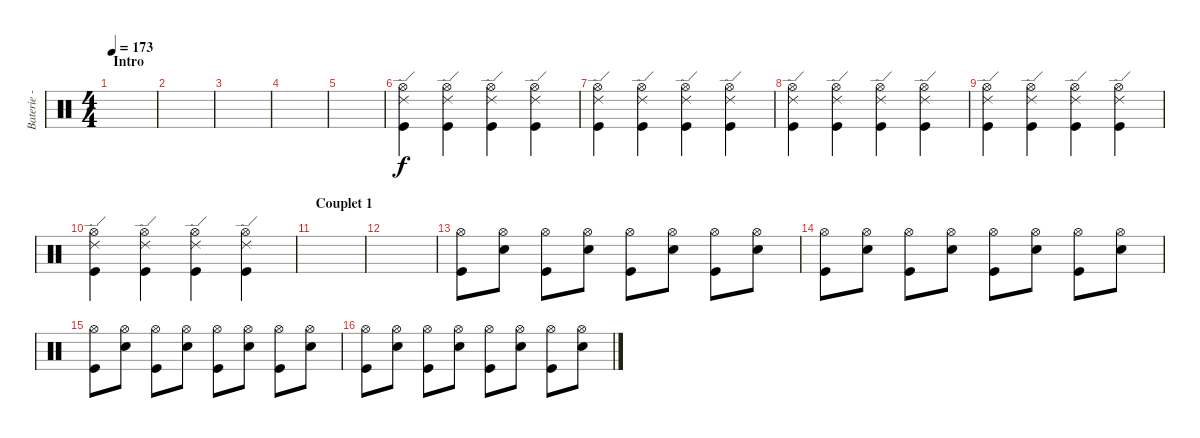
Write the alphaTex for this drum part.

\track ("Baterie - Guillaume" "Baterie - ") {instrument percussion}
\staff {score}
\articulation defaults
\ts (4 4)
\section ("" "Intro")
\tempo 173
\clef neutral
\ks c
|
|
|
|
|
("Hi-Hat (open)" "Ride (edge) 2" "Kick (hit)").4 ("Hi-Hat (open)" "Ride (edge) 2" "Kick (hit)").4 ("Hi-Hat (open)" "Ride (edge) 2" "Kick (hit)").4 ("Hi-Hat (open)" "Ride (edge) 2" "Kick (hit)").4 |
("Hi-Hat (open)" "Ride (edge) 2" "Kick (hit)").4 ("Hi-Hat (open)" "Ride (edge) 2" "Kick (hit)").4 ("Hi-Hat (open)" "Ride (edge) 2" "Kick (hit)").4 ("Hi-Hat (open)" "Ride (edge) 2" "Kick (hit)").4 |
("Hi-Hat (open)" "Ride (edge) 2" "Kick (hit)").4 ("Hi-Hat (open)" "Ride (edge) 2" "Kick (hit)").4 ("Hi-Hat (open)" "Ride (edge) 2" "Kick (hit)").4 ("Hi-Hat (open)" "Ride (edge) 2" "Kick (hit)").4 |
("Hi-Hat (open)" "Ride (edge) 2" "Kick (hit)").4 ("Hi-Hat (open)" "Ride (edge) 2" "Kick (hit)").4 ("Hi-Hat (open)" "Ride (edge) 2" "Kick (hit)").4 ("Hi-Hat (open)" "Ride (edge) 2" "Kick (hit)").4 |
("Hi-Hat (open)" "Ride (edge) 2" "Kick (hit)").4 ("Hi-Hat (open)" "Ride (edge) 2" "Kick (hit)").4 ("Hi-Hat (open)" "Ride (edge) 2" "Kick (hit)").4 ("Hi-Hat (open)" "Ride (edge) 2" "Kick (hit)").4 |
\section ("" "Couplet 1")
|
|
("Hi-Hat (open)" "Kick (hit)").8 ("Hi-Hat (open)" "Snare (hit) 2").8 ("Hi-Hat (open)" "Kick (hit)").8 ("Hi-Hat (open)" "Snare (hit) 2").8 ("Hi-Hat (open)" "Kick (hit)").8 ("Hi-Hat (open)" "Snare (hit) 2").8 ("Hi-Hat (open)" "Kick (hit)").8 ("Hi-Hat (open)" "Snare (hit) 2").8 |
("Hi-Hat (open)" "Kick (hit)").8 ("Hi-Hat (open)" "Snare (hit) 2").8 ("Hi-Hat (open)" "Kick (hit)").8 ("Hi-Hat (open)" "Snare (hit) 2").8 ("Hi-Hat (open)" "Kick (hit)").8 ("Hi-Hat (open)" "Snare (hit) 2").8 ("Hi-Hat (open)" "Kick (hit)").8 ("Hi-Hat (open)" "Snare (hit) 2").8 |
("Hi-Hat (open)" "Kick (hit)").8 ("Hi-Hat (open)" "Snare (hit) 2").8 ("Hi-Hat (open)" "Kick (hit)").8 ("Hi-Hat (open)" "Snare (hit) 2").8 ("Hi-Hat (open)" "Kick (hit)").8 ("Hi-Hat (open)" "Snare (hit) 2").8 ("Hi-Hat (open)" "Kick (hit)").8 ("Hi-Hat (open)" "Snare (hit) 2").8 |
("Hi-Hat (open)" "Kick (hit)").8 ("Hi-Hat (open)" "Snare (hit) 2").8 ("Hi-Hat (open)" "Kick (hit)").8 ("Hi-Hat (open)" "Snare (hit) 2").8 ("Hi-Hat (open)" "Kick (hit)").8 ("Hi-Hat (open)" "Snare (hit) 2").8 ("Hi-Hat (open)" "Kick (hit)").8 ("Hi-Hat (open)" "Snare (hit) 2").8
